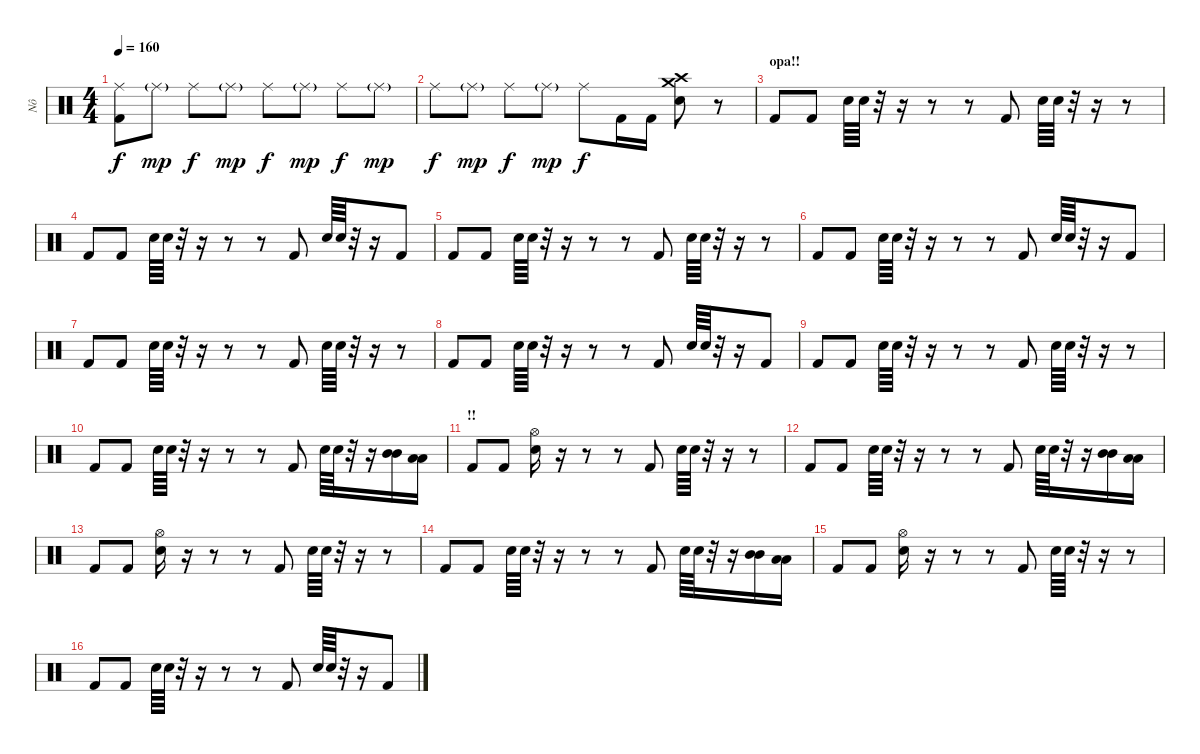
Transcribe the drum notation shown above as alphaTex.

\track ("Nô" "Nô") {instrument percussion}
\staff {score}
\articulation defaults
\ts (4 4)
\tempo 160
\clef neutral
\ks c
("Ride (middle)" "Kick (hit) 2").8{dy f} "Ride (middle)"{g}.8{dy mp} "Ride (middle)".8{dy f} "Ride (middle)"{g}.8{dy mp} "Ride (middle)".8{dy f} "Ride (middle)"{g}.8{dy mp} "Ride (middle)".8{dy f} "Ride (middle)"{g}.8{dy mp} |
"Ride (middle)".8{dy f} "Ride (middle)"{g}.8{dy mp} "Ride (middle)".8{dy f} "Ride (middle)"{g}.8{dy mp} "Ride (middle)".8{dy f} "Kick (hit) 2".16 "Kick (hit) 2".16 ("Crash high (hit)" "Crash medium (hit)" "Electric Snare (hit)").8 r.8 |
\section ("" "opa!!")
"Kick (hit) 2".8 "Kick (hit) 2".8 "Electric Snare (hit)".64 "Electric Snare (hit)".64 r.32 r.16 r.8 r.8 "Kick (hit) 2".8 "Electric Snare (hit)".64 "Electric Snare (hit)".64 r.32 r.16 r.8 |
"Kick (hit) 2".8 "Kick (hit) 2".8 "Electric Snare (hit)".64 "Electric Snare (hit)".64 r.32 r.16 r.8 r.8 "Kick (hit) 2".8 "Electric Snare (hit)".64 "Electric Snare (hit)".64 r.32 r.16 "Kick (hit) 2".8 |
"Kick (hit) 2".8 "Kick (hit) 2".8 "Electric Snare (hit)".64 "Electric Snare (hit)".64 r.32 r.16 r.8 r.8 "Kick (hit) 2".8 "Electric Snare (hit)".64 "Electric Snare (hit)".64 r.32 r.16 r.8 |
"Kick (hit) 2".8 "Kick (hit) 2".8 "Electric Snare (hit)".64 "Electric Snare (hit)".64 r.32 r.16 r.8 r.8 "Kick (hit) 2".8 "Electric Snare (hit)".64 "Electric Snare (hit)".64 r.32 r.16 "Kick (hit) 2".8 |
"Kick (hit) 2".8 "Kick (hit) 2".8 "Electric Snare (hit)".64 "Electric Snare (hit)".64 r.32 r.16 r.8 r.8 "Kick (hit) 2".8 "Electric Snare (hit)".64 "Electric Snare (hit)".64 r.32 r.16 r.8 |
"Kick (hit) 2".8 "Kick (hit) 2".8 "Electric Snare (hit)".64 "Electric Snare (hit)".64 r.32 r.16 r.8 r.8 "Kick (hit) 2".8 "Electric Snare (hit)".64 "Electric Snare (hit)".64 r.32 r.16 "Kick (hit) 2".8 |
"Kick (hit) 2".8 "Kick (hit) 2".8 "Electric Snare (hit)".64 "Electric Snare (hit)".64 r.32 r.16 r.8 r.8 "Kick (hit) 2".8 "Electric Snare (hit)".64 "Electric Snare (hit)".64 r.32 r.16 r.8 |
"Kick (hit) 2".8 "Kick (hit) 2".8 "Electric Snare (hit)".64 "Electric Snare (hit)".64 r.32 r.16 r.8 r.8 "Kick (hit) 2".8 "Electric Snare (hit)".64 "Electric Snare (hit)".64 r.32 r.16 ("Mid Tom (hit)" "Mid Tom (hit)").16 ("Low Tom (hit)" "Low Tom (hit)").16 |
\section ("" "!!")
"Kick (hit) 2".8 "Kick (hit) 2".8 ("Hi-Hat (open)" "Electric Snare (hit)").16 r.16 r.8 r.8 "Kick (hit) 2".8 "Electric Snare (hit)".64 "Electric Snare (hit)".64 r.32 r.16 r.8 |
"Kick (hit) 2".8 "Kick (hit) 2".8 "Electric Snare (hit)".64 "Electric Snare (hit)".64 r.32 r.16 r.8 r.8 "Kick (hit) 2".8 "Electric Snare (hit)".64 "Electric Snare (hit)".64 r.32 r.16 ("Mid Tom (hit)" "Mid Tom (hit)").16 ("Low Tom (hit)" "Low Tom (hit)").16 |
"Kick (hit) 2".8 "Kick (hit) 2".8 ("Hi-Hat (open)" "Electric Snare (hit)").16 r.16 r.8 r.8 "Kick (hit) 2".8 "Electric Snare (hit)".64 "Electric Snare (hit)".64 r.32 r.16 r.8 |
"Kick (hit) 2".8 "Kick (hit) 2".8 "Electric Snare (hit)".64 "Electric Snare (hit)".64 r.32 r.16 r.8 r.8 "Kick (hit) 2".8 "Electric Snare (hit)".64 "Electric Snare (hit)".64 r.32 r.16 ("Mid Tom (hit)" "Mid Tom (hit)").16 ("Low Tom (hit)" "Low Tom (hit)").16 |
"Kick (hit) 2".8 "Kick (hit) 2".8 ("Hi-Hat (open)" "Electric Snare (hit)").16 r.16 r.8 r.8 "Kick (hit) 2".8 "Electric Snare (hit)".64 "Electric Snare (hit)".64 r.32 r.16 r.8 |
"Kick (hit) 2".8 "Kick (hit) 2".8 "Electric Snare (hit)".64 "Electric Snare (hit)".64 r.32 r.16 r.8 r.8 "Kick (hit) 2".8 "Electric Snare (hit)".64 "Electric Snare (hit)".64 r.32 r.16 "Kick (hit) 2".8
